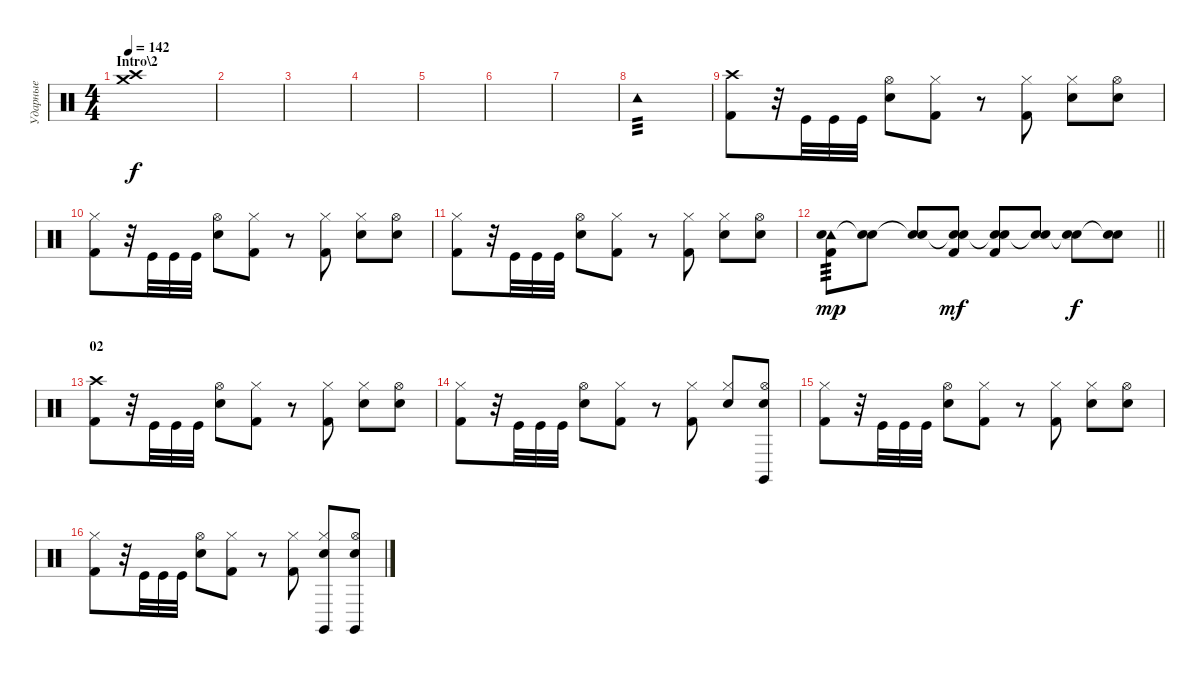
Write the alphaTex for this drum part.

\track ("Ударные" "Ударные") {instrument percussion}
\staff {score}
\articulation defaults
\ts (4 4)
\section ("" "Intro\\2")
\tempo 142
\clef neutral
\ks c
("Crash high (hit)" "Crash medium (hit)").1{dy f} |
|
|
|
|
|
|
"Tambourine (hit)".1{tp 3 volume 13} |
("Crash high (hit)" "Kick (hit) 2").8 r.32 "Kick (hit)".32 "Kick (hit)".32 "Kick (hit)".32 ("Hi-Hat (open)" "Electric Snare (hit)").8 ("Hi-Hat (closed)" "Kick (hit) 2").8 r.8 ("Hi-Hat (closed)" "Kick (hit) 2").8 ("Hi-Hat (closed)" "Electric Snare (hit)").8 ("Hi-Hat (open)" "Electric Snare (hit)").8 |
("Hi-Hat (closed)" "Kick (hit) 2").8 r.32 "Kick (hit)".32 "Kick (hit)".32 "Kick (hit)".32 ("Hi-Hat (open)" "Electric Snare (hit)").8 ("Hi-Hat (closed)" "Kick (hit) 2").8 r.8 ("Hi-Hat (closed)" "Kick (hit) 2").8 ("Hi-Hat (closed)" "Electric Snare (hit)").8 ("Hi-Hat (open)" "Electric Snare (hit)").8 |
("Hi-Hat (closed)" "Kick (hit) 2").8 r.32 "Kick (hit)".32 "Kick (hit)".32 "Kick (hit)".32 ("Hi-Hat (open)" "Electric Snare (hit)").8 ("Hi-Hat (closed)" "Kick (hit) 2").8 r.8 ("Hi-Hat (closed)" "Kick (hit) 2").8 ("Hi-Hat (closed)" "Electric Snare (hit)").8 ("Hi-Hat (open)" "Electric Snare (hit)").8 |
\barLineRight lightlight
("Tambourine (hit)" "Electric Snare (hit)" "Kick (hit) 2").8{tp 3 dy mp} ("Snare (hit)"{t} "Electric Snare (hit)").8 ("Snare (hit)"{t} "Electric Snare (hit)").8 ("Snare (hit)"{t} "Electric Snare (hit)" "Kick (hit) 2").8{dy mf} ("Snare (hit)"{t} "Electric Snare (hit)" "Kick (hit) 2").8 ("Snare (hit)"{t} "Electric Snare (hit)").8 ("Snare (hit)"{t} "Electric Snare (hit)").8{dy f} ("Snare (hit)"{t} "Electric Snare (hit)").8 |
\section ("" "02")
("Crash high (hit)" "Kick (hit) 2").8 r.32 "Kick (hit)".32 "Kick (hit)".32 "Kick (hit)".32 ("Hi-Hat (open)" "Electric Snare (hit)").8 ("Hi-Hat (closed)" "Kick (hit) 2").8 r.8 ("Hi-Hat (closed)" "Kick (hit) 2").8 ("Hi-Hat (closed)" "Electric Snare (hit)").8 ("Hi-Hat (open)" "Electric Snare (hit)").8 |
("Hi-Hat (closed)" "Kick (hit) 2").8 r.32 "Kick (hit)".32 "Kick (hit)".32 "Kick (hit)".32 ("Hi-Hat (open)" "Electric Snare (hit)").8 ("Hi-Hat (closed)" "Kick (hit) 2").8 r.8 ("Hi-Hat (closed)" "Kick (hit) 2").8 ("Hi-Hat (closed)" "Electric Snare (hit)").8 ("Claves (hit)" "Hi-Hat (open)" "Electric Snare (hit)").8 |
("Hi-Hat (closed)" "Kick (hit) 2").8 r.32 "Kick (hit)".32 "Kick (hit)".32 "Kick (hit)".32 ("Hi-Hat (open)" "Electric Snare (hit)").8 ("Hi-Hat (closed)" "Kick (hit) 2").8 r.8 ("Hi-Hat (closed)" "Kick (hit) 2").8 ("Hi-Hat (closed)" "Electric Snare (hit)").8 ("Hi-Hat (open)" "Electric Snare (hit)").8 |
("Hi-Hat (closed)" "Kick (hit) 2").8 r.32 "Kick (hit)".32 "Kick (hit)".32 "Kick (hit)".32 ("Hi-Hat (open)" "Electric Snare (hit)").8 ("Hi-Hat (closed)" "Kick (hit) 2").8 r.8 ("Hi-Hat (closed)" "Kick (hit) 2").8 ("Claves (hit)" "Hi-Hat (closed)" "Electric Snare (hit)").8 ("Claves (hit)" "Hi-Hat (open)" "Electric Snare (hit)").8
